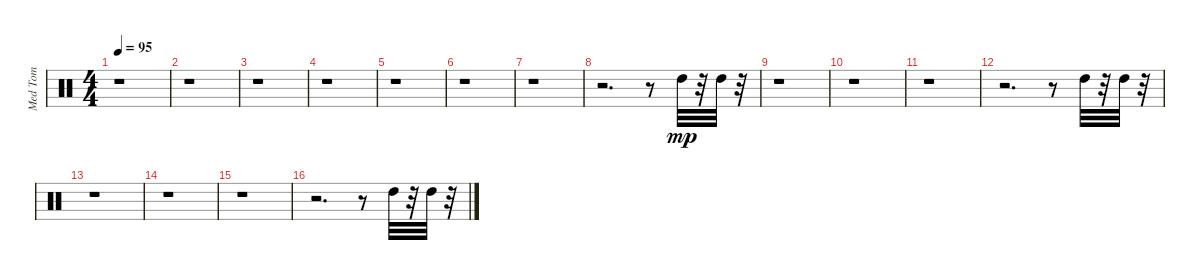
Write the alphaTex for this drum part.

\track ("Med Tom" "Med Tom") {instrument percussion}
\staff {score}
\articulation defaults
\ts (4 4)
\tempo 95
\clef neutral
\ks c
r.1{dy mp} |
r.1 |
r.1 |
r.1 |
r.1 |
r.1 |
r.1 |
r.2{d} r.8 "High Tom (hit)".32 r.32 "High Tom (hit)".32 r.32 |
r.1 |
r.1 |
r.1 |
r.2{d} r.8 "High Tom (hit)".32 r.32 "High Tom (hit)".32 r.32 |
r.1 |
r.1 |
r.1 |
r.2{d} r.8 "High Tom (hit)".32 r.32 "High Tom (hit)".32 r.32
